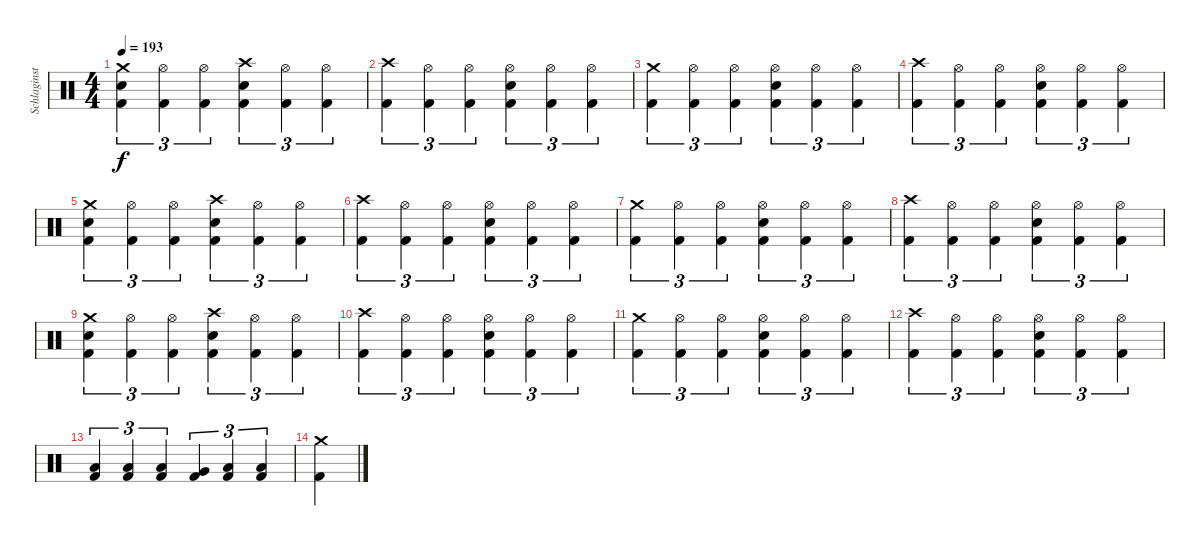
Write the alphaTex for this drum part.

\track ("Schlaginstrumente - Auswahl" "Schlaginst") {instrument percussion}
\staff {score}
\articulation defaults
\ts (4 4)
\tempo 193
\clef neutral
\ks c
("Crash medium (hit)" "Electric Snare (hit)" "Kick (hit) 2").4{tu (3 2) dy f} ("Hi-Hat (open)" "Kick (hit) 2").4{tu (3 2)} ("Hi-Hat (open)" "Kick (hit) 2").4{tu (3 2)} ("Crash high (hit)" "Electric Snare (hit)" "Kick (hit) 2").4{tu (3 2)} ("Hi-Hat (open)" "Kick (hit) 2").4{tu (3 2)} ("Hi-Hat (open)" "Kick (hit) 2").4{tu (3 2)} |
("Crash high (hit)" "Kick (hit) 2").4{tu (3 2)} ("Hi-Hat (open)" "Kick (hit) 2").4{tu (3 2)} ("Hi-Hat (open)" "Kick (hit) 2").4{tu (3 2)} ("Hi-Hat (open)" "Electric Snare (hit)" "Kick (hit) 2").4{tu (3 2)} ("Hi-Hat (open)" "Kick (hit) 2").4{tu (3 2)} ("Hi-Hat (open)" "Kick (hit) 2").4{tu (3 2)} |
("Crash medium (hit)" "Kick (hit) 2").4{tu (3 2)} ("Hi-Hat (open)" "Kick (hit) 2").4{tu (3 2)} ("Hi-Hat (open)" "Kick (hit) 2").4{tu (3 2)} ("Hi-Hat (open)" "Electric Snare (hit)" "Kick (hit) 2").4{tu (3 2)} ("Hi-Hat (open)" "Kick (hit) 2").4{tu (3 2)} ("Hi-Hat (open)" "Kick (hit) 2").4{tu (3 2)} |
("Crash high (hit)" "Kick (hit) 2").4{tu (3 2)} ("Hi-Hat (open)" "Kick (hit) 2").4{tu (3 2)} ("Hi-Hat (open)" "Kick (hit) 2").4{tu (3 2)} ("Hi-Hat (open)" "Electric Snare (hit)" "Kick (hit) 2").4{tu (3 2)} ("Hi-Hat (open)" "Kick (hit) 2").4{tu (3 2)} ("Hi-Hat (open)" "Kick (hit) 2").4{tu (3 2)} |
("Crash medium (hit)" "Electric Snare (hit)" "Kick (hit) 2").4{tu (3 2)} ("Hi-Hat (open)" "Kick (hit) 2").4{tu (3 2)} ("Hi-Hat (open)" "Kick (hit) 2").4{tu (3 2)} ("Crash high (hit)" "Electric Snare (hit)" "Kick (hit) 2").4{tu (3 2)} ("Hi-Hat (open)" "Kick (hit) 2").4{tu (3 2)} ("Hi-Hat (open)" "Kick (hit) 2").4{tu (3 2)} |
("Crash high (hit)" "Kick (hit) 2").4{tu (3 2)} ("Hi-Hat (open)" "Kick (hit) 2").4{tu (3 2)} ("Hi-Hat (open)" "Kick (hit) 2").4{tu (3 2)} ("Hi-Hat (open)" "Electric Snare (hit)" "Kick (hit) 2").4{tu (3 2)} ("Hi-Hat (open)" "Kick (hit) 2").4{tu (3 2)} ("Hi-Hat (open)" "Kick (hit) 2").4{tu (3 2)} |
("Crash medium (hit)" "Kick (hit) 2").4{tu (3 2)} ("Hi-Hat (open)" "Kick (hit) 2").4{tu (3 2)} ("Hi-Hat (open)" "Kick (hit) 2").4{tu (3 2)} ("Hi-Hat (open)" "Electric Snare (hit)" "Kick (hit) 2").4{tu (3 2)} ("Hi-Hat (open)" "Kick (hit) 2").4{tu (3 2)} ("Hi-Hat (open)" "Kick (hit) 2").4{tu (3 2)} |
("Crash high (hit)" "Kick (hit) 2").4{tu (3 2)} ("Hi-Hat (open)" "Kick (hit) 2").4{tu (3 2)} ("Hi-Hat (open)" "Kick (hit) 2").4{tu (3 2)} ("Hi-Hat (open)" "Electric Snare (hit)" "Kick (hit) 2").4{tu (3 2)} ("Hi-Hat (open)" "Kick (hit) 2").4{tu (3 2)} ("Hi-Hat (open)" "Kick (hit) 2").4{tu (3 2)} |
("Crash medium (hit)" "Electric Snare (hit)" "Kick (hit) 2").4{tu (3 2)} ("Hi-Hat (open)" "Kick (hit) 2").4{tu (3 2)} ("Hi-Hat (open)" "Kick (hit) 2").4{tu (3 2)} ("Crash high (hit)" "Electric Snare (hit)" "Kick (hit) 2").4{tu (3 2)} ("Hi-Hat (open)" "Kick (hit) 2").4{tu (3 2)} ("Hi-Hat (open)" "Kick (hit) 2").4{tu (3 2)} |
("Crash high (hit)" "Kick (hit) 2").4{tu (3 2)} ("Hi-Hat (open)" "Kick (hit) 2").4{tu (3 2)} ("Hi-Hat (open)" "Kick (hit) 2").4{tu (3 2)} ("Hi-Hat (open)" "Electric Snare (hit)" "Kick (hit) 2").4{tu (3 2)} ("Hi-Hat (open)" "Kick (hit) 2").4{tu (3 2)} ("Hi-Hat (open)" "Kick (hit) 2").4{tu (3 2)} |
("Crash medium (hit)" "Kick (hit) 2").4{tu (3 2)} ("Hi-Hat (open)" "Kick (hit) 2").4{tu (3 2)} ("Hi-Hat (open)" "Kick (hit) 2").4{tu (3 2)} ("Hi-Hat (open)" "Electric Snare (hit)" "Kick (hit) 2").4{tu (3 2)} ("Hi-Hat (open)" "Kick (hit) 2").4{tu (3 2)} ("Hi-Hat (open)" "Kick (hit) 2").4{tu (3 2)} |
("Crash high (hit)" "Kick (hit) 2").4{tu (3 2)} ("Hi-Hat (open)" "Kick (hit) 2").4{tu (3 2)} ("Hi-Hat (open)" "Kick (hit) 2").4{tu (3 2)} ("Hi-Hat (open)" "Electric Snare (hit)" "Kick (hit) 2").4{tu (3 2)} ("Hi-Hat (open)" "Kick (hit) 2").4{tu (3 2)} ("Hi-Hat (open)" "Kick (hit) 2").4{tu (3 2)} |
("Low Tom (hit)" "Kick (hit) 2").4{tu (3 2)} ("Low Tom (hit)" "Kick (hit) 2").4{tu (3 2)} ("Low Tom (hit)" "Kick (hit) 2").4{tu (3 2)} ("Very Low Tom (hit)" "Kick (hit) 2").4{tu (3 2)} ("Low Floor Tom (hit)" "Kick (hit) 2").4{tu (3 2)} ("Low Floor Tom (hit)" "Kick (hit) 2").4{tu (3 2)} |
("Crash medium (hit)" "Kick (hit) 2").4
